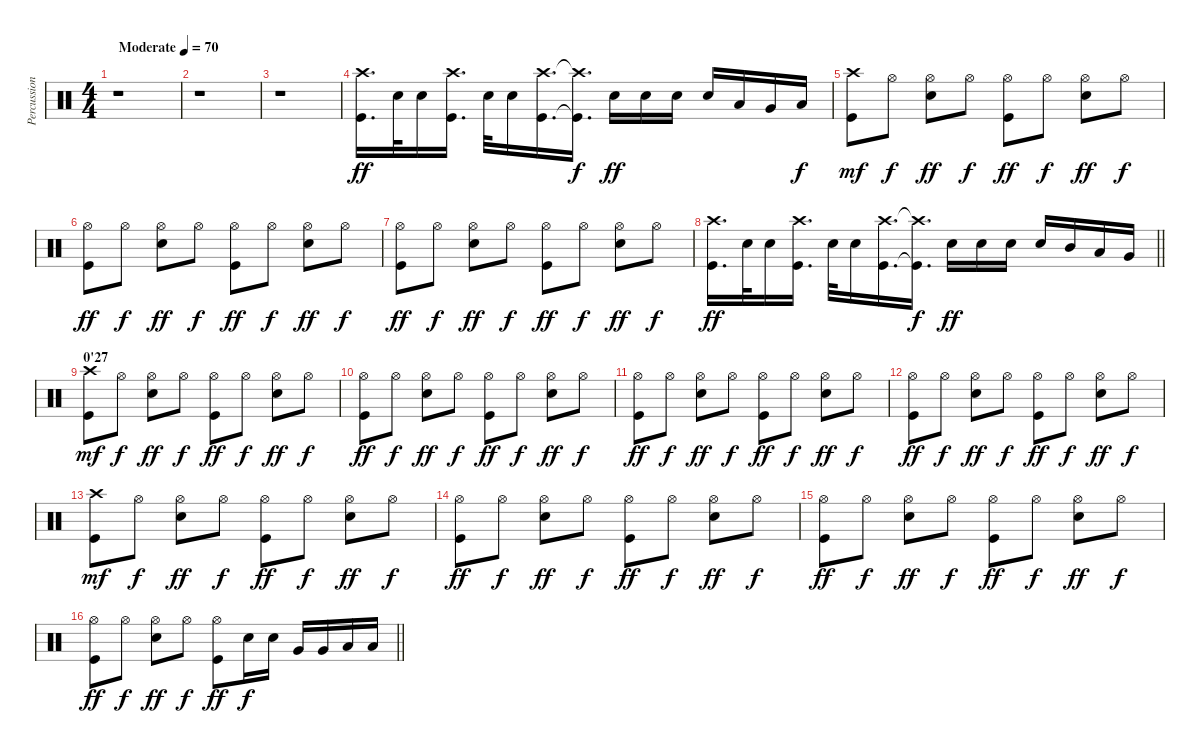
\track ("Percussions" "Percussion") {instrument percussion}
\staff {score}
\articulation defaults
\ts (4 4)
\tempo (70 "Moderate")
\clef neutral
\ks c
r.1{dy ff} |
r.1 |
r.1 |
("Kick (hit)" "Crash high (hit)").16{d} "Electric Snare (hit)".32 "Electric Snare (hit)".16 ("Kick (hit)" "Crash high (hit)").16{d} "Electric Snare (hit)".32 "Electric Snare (hit)".16 ("Kick (hit)" "Crash high (hit)").16{d} ("Kick (hit)"{t} "Crash high (hit)"{t}).16{d dy f} "Electric Snare (hit)".16{dy ff} "Electric Snare (hit)".16 "Electric Snare (hit)".16 "Electric Snare (hit)".16{beam Up} "Low Tom (hit)".16{beam Up} "Very Low Tom (hit)".16{beam Up} "Low Floor Tom (hit)".16{dy f} |
("Kick (hit)" "Crash high (hit)").8{dy mf} "Hi-Hat (open)".8{dy f} ("Electric Snare (hit)" "Hi-Hat (open)").8{dy ff} "Hi-Hat (open)".8{dy f} ("Kick (hit)" "Hi-Hat (open)").8{dy ff} "Hi-Hat (open)".8{dy f} ("Electric Snare (hit)" "Hi-Hat (open)").8{dy ff} "Hi-Hat (open)".8{dy f} |
("Kick (hit)" "Hi-Hat (open)").8{dy ff} "Hi-Hat (open)".8{dy f} ("Electric Snare (hit)" "Hi-Hat (open)").8{dy ff} "Hi-Hat (open)".8{dy f} ("Kick (hit)" "Hi-Hat (open)").8{dy ff} "Hi-Hat (open)".8{dy f} ("Electric Snare (hit)" "Hi-Hat (open)").8{dy ff} "Hi-Hat (open)".8{dy f} |
("Kick (hit)" "Hi-Hat (open)").8{dy ff} "Hi-Hat (open)".8{dy f} ("Electric Snare (hit)" "Hi-Hat (open)").8{dy ff} "Hi-Hat (open)".8{dy f} ("Kick (hit)" "Hi-Hat (open)").8{dy ff} "Hi-Hat (open)".8{dy f} ("Electric Snare (hit)" "Hi-Hat (open)").8{dy ff} "Hi-Hat (open)".8{dy f} |
\barLineRight lightlight
("Kick (hit)" "Crash high (hit)").16{d dy ff} "Electric Snare (hit)".32 "Electric Snare (hit)".16 ("Kick (hit)" "Crash high (hit)").16{d} "Electric Snare (hit)".32 "Electric Snare (hit)".16 ("Kick (hit)" "Crash high (hit)").16{d} ("Kick (hit)"{t} "Crash high (hit)"{t}).16{d dy f} "Electric Snare (hit)".16{dy ff} "Electric Snare (hit)".16 "Electric Snare (hit)".16 "Electric Snare (hit)".16{beam Up} "Mid Tom (hit)".16{beam Up} "Low Tom (hit)".16{beam Up} "Very Low Tom (hit)".16{beam Up} |
\section ("" "0'27")
("Kick (hit)" "Crash high (hit)").8{dy mf} "Hi-Hat (open)".8{dy f} ("Electric Snare (hit)" "Hi-Hat (open)").8{dy ff} "Hi-Hat (open)".8{dy f} ("Kick (hit)" "Hi-Hat (open)").8{dy ff} "Hi-Hat (open)".8{dy f} ("Electric Snare (hit)" "Hi-Hat (open)").8{dy ff} "Hi-Hat (open)".8{dy f} |
("Kick (hit)" "Hi-Hat (open)").8{dy ff} "Hi-Hat (open)".8{dy f} ("Electric Snare (hit)" "Hi-Hat (open)").8{dy ff} "Hi-Hat (open)".8{dy f} ("Kick (hit)" "Hi-Hat (open)").8{dy ff} "Hi-Hat (open)".8{dy f} ("Electric Snare (hit)" "Hi-Hat (open)").8{dy ff} "Hi-Hat (open)".8{dy f} |
("Kick (hit)" "Hi-Hat (open)").8{dy ff} "Hi-Hat (open)".8{dy f} ("Electric Snare (hit)" "Hi-Hat (open)").8{dy ff} "Hi-Hat (open)".8{dy f} ("Kick (hit)" "Hi-Hat (open)").8{dy ff} "Hi-Hat (open)".8{dy f} ("Electric Snare (hit)" "Hi-Hat (open)").8{dy ff} "Hi-Hat (open)".8{dy f} |
("Kick (hit)" "Hi-Hat (open)").8{dy ff} "Hi-Hat (open)".8{dy f} ("Electric Snare (hit)" "Hi-Hat (open)").8{dy ff} "Hi-Hat (open)".8{dy f} ("Kick (hit)" "Hi-Hat (open)").8{dy ff} "Hi-Hat (open)".8{dy f} ("Electric Snare (hit)" "Hi-Hat (open)").8{dy ff} "Hi-Hat (open)".8{dy f} |
("Kick (hit)" "Crash high (hit)").8{dy mf} "Hi-Hat (open)".8{dy f} ("Electric Snare (hit)" "Hi-Hat (open)").8{dy ff} "Hi-Hat (open)".8{dy f} ("Kick (hit)" "Hi-Hat (open)").8{dy ff} "Hi-Hat (open)".8{dy f} ("Electric Snare (hit)" "Hi-Hat (open)").8{dy ff} "Hi-Hat (open)".8{dy f} |
("Kick (hit)" "Hi-Hat (open)").8{dy ff} "Hi-Hat (open)".8{dy f} ("Electric Snare (hit)" "Hi-Hat (open)").8{dy ff} "Hi-Hat (open)".8{dy f} ("Kick (hit)" "Hi-Hat (open)").8{dy ff} "Hi-Hat (open)".8{dy f} ("Electric Snare (hit)" "Hi-Hat (open)").8{dy ff} "Hi-Hat (open)".8{dy f} |
("Kick (hit)" "Hi-Hat (open)").8{dy ff} "Hi-Hat (open)".8{dy f} ("Electric Snare (hit)" "Hi-Hat (open)").8{dy ff} "Hi-Hat (open)".8{dy f} ("Kick (hit)" "Hi-Hat (open)").8{dy ff} "Hi-Hat (open)".8{dy f} ("Electric Snare (hit)" "Hi-Hat (open)").8{dy ff} "Hi-Hat (open)".8{dy f} |
\barLineRight lightlight
("Kick (hit)" "Hi-Hat (open)").8{dy ff} "Hi-Hat (open)".8{dy f} ("Electric Snare (hit)" "Hi-Hat (open)").8{dy ff} "Hi-Hat (open)".8{dy f} ("Kick (hit)" "Hi-Hat (open)").8{dy ff} "Electric Snare (hit)".16{dy f} "Electric Snare (hit)".16 "Very Low Tom (hit)".16 "Very Low Tom (hit)".16 "Low Floor Tom (hit)".16 "Low Floor Tom (hit)".16
